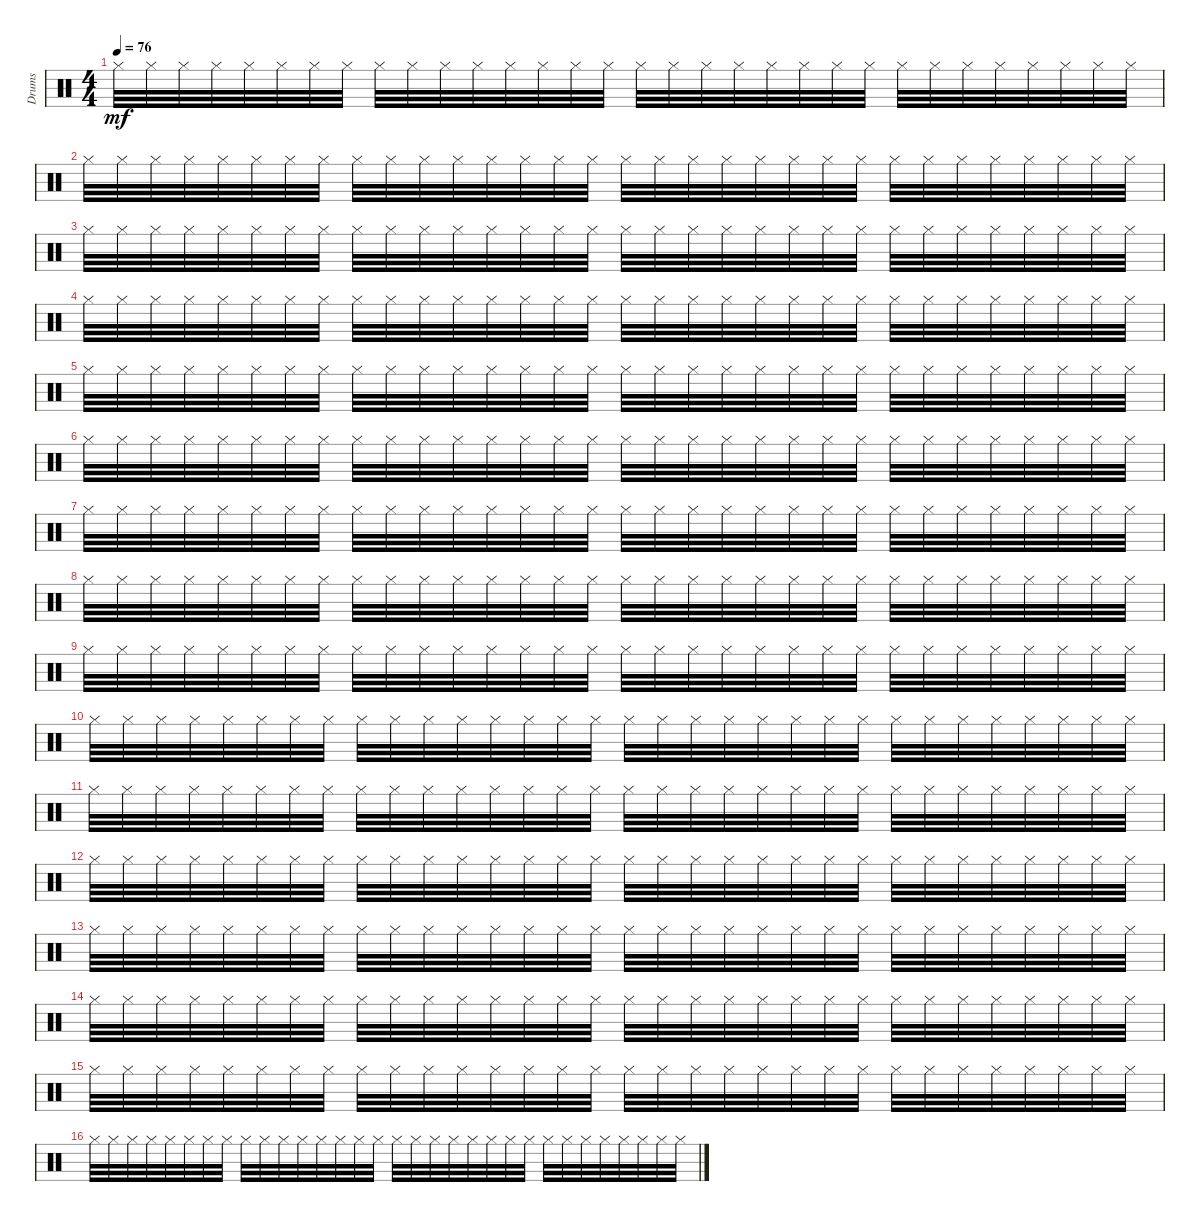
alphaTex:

\track ("Drumkit" "Drums") {instrument percussion}
\staff {score}
\articulation defaults
\ts (4 4)
\tempo 76
\clef neutral
\ks c "Hi-Hat (closed)".32{dy mf} "Hi-Hat (closed)".32 "Hi-Hat (closed)".32 "Hi-Hat (closed)".32 "Hi-Hat (closed)".32 "Hi-Hat (closed)".32 "Hi-Hat (closed)".32 "Hi-Hat (closed)".32 "Hi-Hat (closed)".32 "Hi-Hat (closed)".32 "Hi-Hat (closed)".32 "Hi-Hat (closed)".32 "Hi-Hat (closed)".32 "Hi-Hat (closed)".32 "Hi-Hat (closed)".32 "Hi-Hat (closed)".32 "Hi-Hat (closed)".32 "Hi-Hat (closed)".32 "Hi-Hat (closed)".32 "Hi-Hat (closed)".32 "Hi-Hat (closed)".32 "Hi-Hat (closed)".32 "Hi-Hat (closed)".32 "Hi-Hat (closed)".32 "Hi-Hat (closed)".32 "Hi-Hat (closed)".32 "Hi-Hat (closed)".32 "Hi-Hat (closed)".32 "Hi-Hat (closed)".32 "Hi-Hat (closed)".32 "Hi-Hat (closed)".32 "Hi-Hat (closed)".32
|
"Hi-Hat (closed)".32 "Hi-Hat (closed)".32 "Hi-Hat (closed)".32 "Hi-Hat (closed)".32 "Hi-Hat (closed)".32 "Hi-Hat (closed)".32 "Hi-Hat (closed)".32 "Hi-Hat (closed)".32 "Hi-Hat (closed)".32 "Hi-Hat (closed)".32 "Hi-Hat (closed)".32 "Hi-Hat (closed)".32 "Hi-Hat (closed)".32 "Hi-Hat (closed)".32 "Hi-Hat (closed)".32 "Hi-Hat (closed)".32 "Hi-Hat (closed)".32 "Hi-Hat (closed)".32 "Hi-Hat (closed)".32 "Hi-Hat (closed)".32 "Hi-Hat (closed)".32 "Hi-Hat (closed)".32 "Hi-Hat (closed)".32 "Hi-Hat (closed)".32 "Hi-Hat (closed)".32 "Hi-Hat (closed)".32 "Hi-Hat (closed)".32 "Hi-Hat (closed)".32 "Hi-Hat (closed)".32 "Hi-Hat (closed)".32 "Hi-Hat (closed)".32 "Hi-Hat (closed)".32 |
"Hi-Hat (closed)".32 "Hi-Hat (closed)".32 "Hi-Hat (closed)".32 "Hi-Hat (closed)".32 "Hi-Hat (closed)".32 "Hi-Hat (closed)".32 "Hi-Hat (closed)".32 "Hi-Hat (closed)".32 "Hi-Hat (closed)".32 "Hi-Hat (closed)".32 "Hi-Hat (closed)".32 "Hi-Hat (closed)".32 "Hi-Hat (closed)".32 "Hi-Hat (closed)".32 "Hi-Hat (closed)".32 "Hi-Hat (closed)".32 "Hi-Hat (closed)".32 "Hi-Hat (closed)".32 "Hi-Hat (closed)".32 "Hi-Hat (closed)".32 "Hi-Hat (closed)".32 "Hi-Hat (closed)".32 "Hi-Hat (closed)".32 "Hi-Hat (closed)".32 "Hi-Hat (closed)".32 "Hi-Hat (closed)".32 "Hi-Hat (closed)".32 "Hi-Hat (closed)".32 "Hi-Hat (closed)".32 "Hi-Hat (closed)".32 "Hi-Hat (closed)".32 "Hi-Hat (closed)".32 |
"Hi-Hat (closed)".32 "Hi-Hat (closed)".32 "Hi-Hat (closed)".32 "Hi-Hat (closed)".32 "Hi-Hat (closed)".32 "Hi-Hat (closed)".32 "Hi-Hat (closed)".32 "Hi-Hat (closed)".32 "Hi-Hat (closed)".32 "Hi-Hat (closed)".32 "Hi-Hat (closed)".32 "Hi-Hat (closed)".32 "Hi-Hat (closed)".32 "Hi-Hat (closed)".32 "Hi-Hat (closed)".32 "Hi-Hat (closed)".32 "Hi-Hat (closed)".32 "Hi-Hat (closed)".32 "Hi-Hat (closed)".32 "Hi-Hat (closed)".32 "Hi-Hat (closed)".32 "Hi-Hat (closed)".32 "Hi-Hat (closed)".32 "Hi-Hat (closed)".32 "Hi-Hat (closed)".32 "Hi-Hat (closed)".32 "Hi-Hat (closed)".32 "Hi-Hat (closed)".32 "Hi-Hat (closed)".32 "Hi-Hat (closed)".32 "Hi-Hat (closed)".32 "Hi-Hat (closed)".32 |
"Hi-Hat (closed)".32 "Hi-Hat (closed)".32 "Hi-Hat (closed)".32 "Hi-Hat (closed)".32 "Hi-Hat (closed)".32 "Hi-Hat (closed)".32 "Hi-Hat (closed)".32 "Hi-Hat (closed)".32 "Hi-Hat (closed)".32 "Hi-Hat (closed)".32 "Hi-Hat (closed)".32 "Hi-Hat (closed)".32 "Hi-Hat (closed)".32 "Hi-Hat (closed)".32 "Hi-Hat (closed)".32 "Hi-Hat (closed)".32 "Hi-Hat (closed)".32 "Hi-Hat (closed)".32 "Hi-Hat (closed)".32 "Hi-Hat (closed)".32 "Hi-Hat (closed)".32 "Hi-Hat (closed)".32 "Hi-Hat (closed)".32 "Hi-Hat (closed)".32 "Hi-Hat (closed)".32 "Hi-Hat (closed)".32 "Hi-Hat (closed)".32 "Hi-Hat (closed)".32 "Hi-Hat (closed)".32 "Hi-Hat (closed)".32 "Hi-Hat (closed)".32 "Hi-Hat (closed)".32 |
"Hi-Hat (closed)".32 "Hi-Hat (closed)".32 "Hi-Hat (closed)".32 "Hi-Hat (closed)".32 "Hi-Hat (closed)".32 "Hi-Hat (closed)".32 "Hi-Hat (closed)".32 "Hi-Hat (closed)".32 "Hi-Hat (closed)".32 "Hi-Hat (closed)".32 "Hi-Hat (closed)".32 "Hi-Hat (closed)".32 "Hi-Hat (closed)".32 "Hi-Hat (closed)".32 "Hi-Hat (closed)".32 "Hi-Hat (closed)".32 "Hi-Hat (closed)".32 "Hi-Hat (closed)".32 "Hi-Hat (closed)".32 "Hi-Hat (closed)".32 "Hi-Hat (closed)".32 "Hi-Hat (closed)".32 "Hi-Hat (closed)".32 "Hi-Hat (closed)".32 "Hi-Hat (closed)".32 "Hi-Hat (closed)".32 "Hi-Hat (closed)".32 "Hi-Hat (closed)".32 "Hi-Hat (closed)".32 "Hi-Hat (closed)".32 "Hi-Hat (closed)".32 "Hi-Hat (closed)".32 |
"Hi-Hat (closed)".32 "Hi-Hat (closed)".32 "Hi-Hat (closed)".32 "Hi-Hat (closed)".32 "Hi-Hat (closed)".32 "Hi-Hat (closed)".32 "Hi-Hat (closed)".32 "Hi-Hat (closed)".32 "Hi-Hat (closed)".32 "Hi-Hat (closed)".32 "Hi-Hat (closed)".32 "Hi-Hat (closed)".32 "Hi-Hat (closed)".32 "Hi-Hat (closed)".32 "Hi-Hat (closed)".32 "Hi-Hat (closed)".32 "Hi-Hat (closed)".32 "Hi-Hat (closed)".32 "Hi-Hat (closed)".32 "Hi-Hat (closed)".32 "Hi-Hat (closed)".32 "Hi-Hat (closed)".32 "Hi-Hat (closed)".32 "Hi-Hat (closed)".32 "Hi-Hat (closed)".32 "Hi-Hat (closed)".32 "Hi-Hat (closed)".32 "Hi-Hat (closed)".32 "Hi-Hat (closed)".32 "Hi-Hat (closed)".32 "Hi-Hat (closed)".32 "Hi-Hat (closed)".32 |
"Hi-Hat (closed)".32 "Hi-Hat (closed)".32 "Hi-Hat (closed)".32 "Hi-Hat (closed)".32 "Hi-Hat (closed)".32 "Hi-Hat (closed)".32 "Hi-Hat (closed)".32 "Hi-Hat (closed)".32 "Hi-Hat (closed)".32 "Hi-Hat (closed)".32 "Hi-Hat (closed)".32 "Hi-Hat (closed)".32 "Hi-Hat (closed)".32 "Hi-Hat (closed)".32 "Hi-Hat (closed)".32 "Hi-Hat (closed)".32 "Hi-Hat (closed)".32 "Hi-Hat (closed)".32 "Hi-Hat (closed)".32 "Hi-Hat (closed)".32 "Hi-Hat (closed)".32 "Hi-Hat (closed)".32 "Hi-Hat (closed)".32 "Hi-Hat (closed)".32 "Hi-Hat (closed)".32 "Hi-Hat (closed)".32 "Hi-Hat (closed)".32 "Hi-Hat (closed)".32 "Hi-Hat (closed)".32 "Hi-Hat (closed)".32 "Hi-Hat (closed)".32 "Hi-Hat (closed)".32 |
"Hi-Hat (closed)".32 "Hi-Hat (closed)".32 "Hi-Hat (closed)".32 "Hi-Hat (closed)".32 "Hi-Hat (closed)".32 "Hi-Hat (closed)".32 "Hi-Hat (closed)".32 "Hi-Hat (closed)".32 "Hi-Hat (closed)".32 "Hi-Hat (closed)".32 "Hi-Hat (closed)".32 "Hi-Hat (closed)".32 "Hi-Hat (closed)".32 "Hi-Hat (closed)".32 "Hi-Hat (closed)".32 "Hi-Hat (closed)".32 "Hi-Hat (closed)".32 "Hi-Hat (closed)".32 "Hi-Hat (closed)".32 "Hi-Hat (closed)".32 "Hi-Hat (closed)".32 "Hi-Hat (closed)".32 "Hi-Hat (closed)".32 "Hi-Hat (closed)".32 "Hi-Hat (closed)".32 "Hi-Hat (closed)".32 "Hi-Hat (closed)".32 "Hi-Hat (closed)".32 "Hi-Hat (closed)".32 "Hi-Hat (closed)".32 "Hi-Hat (closed)".32 "Hi-Hat (closed)".32 |
"Hi-Hat (closed)".32 "Hi-Hat (closed)".32 "Hi-Hat (closed)".32 "Hi-Hat (closed)".32 "Hi-Hat (closed)".32 "Hi-Hat (closed)".32 "Hi-Hat (closed)".32 "Hi-Hat (closed)".32 "Hi-Hat (closed)".32 "Hi-Hat (closed)".32 "Hi-Hat (closed)".32 "Hi-Hat (closed)".32 "Hi-Hat (closed)".32 "Hi-Hat (closed)".32 "Hi-Hat (closed)".32 "Hi-Hat (closed)".32 "Hi-Hat (closed)".32 "Hi-Hat (closed)".32 "Hi-Hat (closed)".32 "Hi-Hat (closed)".32 "Hi-Hat (closed)".32 "Hi-Hat (closed)".32 "Hi-Hat (closed)".32 "Hi-Hat (closed)".32 "Hi-Hat (closed)".32 "Hi-Hat (closed)".32 "Hi-Hat (closed)".32 "Hi-Hat (closed)".32 "Hi-Hat (closed)".32 "Hi-Hat (closed)".32 "Hi-Hat (closed)".32 "Hi-Hat (closed)".32 |
"Hi-Hat (closed)".32 "Hi-Hat (closed)".32 "Hi-Hat (closed)".32 "Hi-Hat (closed)".32 "Hi-Hat (closed)".32 "Hi-Hat (closed)".32 "Hi-Hat (closed)".32 "Hi-Hat (closed)".32 "Hi-Hat (closed)".32 "Hi-Hat (closed)".32 "Hi-Hat (closed)".32 "Hi-Hat (closed)".32 "Hi-Hat (closed)".32 "Hi-Hat (closed)".32 "Hi-Hat (closed)".32 "Hi-Hat (closed)".32 "Hi-Hat (closed)".32 "Hi-Hat (closed)".32 "Hi-Hat (closed)".32 "Hi-Hat (closed)".32 "Hi-Hat (closed)".32 "Hi-Hat (closed)".32 "Hi-Hat (closed)".32 "Hi-Hat (closed)".32 "Hi-Hat (closed)".32 "Hi-Hat (closed)".32 "Hi-Hat (closed)".32 "Hi-Hat (closed)".32 "Hi-Hat (closed)".32 "Hi-Hat (closed)".32 "Hi-Hat (closed)".32 "Hi-Hat (closed)".32 |
"Hi-Hat (closed)".32 "Hi-Hat (closed)".32 "Hi-Hat (closed)".32 "Hi-Hat (closed)".32 "Hi-Hat (closed)".32 "Hi-Hat (closed)".32 "Hi-Hat (closed)".32 "Hi-Hat (closed)".32 "Hi-Hat (closed)".32 "Hi-Hat (closed)".32 "Hi-Hat (closed)".32 "Hi-Hat (closed)".32 "Hi-Hat (closed)".32 "Hi-Hat (closed)".32 "Hi-Hat (closed)".32 "Hi-Hat (closed)".32 "Hi-Hat (closed)".32 "Hi-Hat (closed)".32 "Hi-Hat (closed)".32 "Hi-Hat (closed)".32 "Hi-Hat (closed)".32 "Hi-Hat (closed)".32 "Hi-Hat (closed)".32 "Hi-Hat (closed)".32 "Hi-Hat (closed)".32 "Hi-Hat (closed)".32 "Hi-Hat (closed)".32 "Hi-Hat (closed)".32 "Hi-Hat (closed)".32 "Hi-Hat (closed)".32 "Hi-Hat (closed)".32 "Hi-Hat (closed)".32 |
"Hi-Hat (closed)".32 "Hi-Hat (closed)".32 "Hi-Hat (closed)".32 "Hi-Hat (closed)".32 "Hi-Hat (closed)".32 "Hi-Hat (closed)".32 "Hi-Hat (closed)".32 "Hi-Hat (closed)".32 "Hi-Hat (closed)".32 "Hi-Hat (closed)".32 "Hi-Hat (closed)".32 "Hi-Hat (closed)".32 "Hi-Hat (closed)".32 "Hi-Hat (closed)".32 "Hi-Hat (closed)".32 "Hi-Hat (closed)".32 "Hi-Hat (closed)".32 "Hi-Hat (closed)".32 "Hi-Hat (closed)".32 "Hi-Hat (closed)".32 "Hi-Hat (closed)".32 "Hi-Hat (closed)".32 "Hi-Hat (closed)".32 "Hi-Hat (closed)".32 "Hi-Hat (closed)".32 "Hi-Hat (closed)".32 "Hi-Hat (closed)".32 "Hi-Hat (closed)".32 "Hi-Hat (closed)".32 "Hi-Hat (closed)".32 "Hi-Hat (closed)".32 "Hi-Hat (closed)".32 |
"Hi-Hat (closed)".32 "Hi-Hat (closed)".32 "Hi-Hat (closed)".32 "Hi-Hat (closed)".32 "Hi-Hat (closed)".32 "Hi-Hat (closed)".32 "Hi-Hat (closed)".32 "Hi-Hat (closed)".32 "Hi-Hat (closed)".32 "Hi-Hat (closed)".32 "Hi-Hat (closed)".32 "Hi-Hat (closed)".32 "Hi-Hat (closed)".32 "Hi-Hat (closed)".32 "Hi-Hat (closed)".32 "Hi-Hat (closed)".32 "Hi-Hat (closed)".32 "Hi-Hat (closed)".32 "Hi-Hat (closed)".32 "Hi-Hat (closed)".32 "Hi-Hat (closed)".32 "Hi-Hat (closed)".32 "Hi-Hat (closed)".32 "Hi-Hat (closed)".32 "Hi-Hat (closed)".32 "Hi-Hat (closed)".32 "Hi-Hat (closed)".32 "Hi-Hat (closed)".32 "Hi-Hat (closed)".32 "Hi-Hat (closed)".32 "Hi-Hat (closed)".32 "Hi-Hat (closed)".32 |
"Hi-Hat (closed)".32 "Hi-Hat (closed)".32 "Hi-Hat (closed)".32 "Hi-Hat (closed)".32 "Hi-Hat (closed)".32 "Hi-Hat (closed)".32 "Hi-Hat (closed)".32 "Hi-Hat (closed)".32 "Hi-Hat (closed)".32 "Hi-Hat (closed)".32 "Hi-Hat (closed)".32 "Hi-Hat (closed)".32 "Hi-Hat (closed)".32 "Hi-Hat (closed)".32 "Hi-Hat (closed)".32 "Hi-Hat (closed)".32 "Hi-Hat (closed)".32 "Hi-Hat (closed)".32 "Hi-Hat (closed)".32 "Hi-Hat (closed)".32 "Hi-Hat (closed)".32 "Hi-Hat (closed)".32 "Hi-Hat (closed)".32 "Hi-Hat (closed)".32 "Hi-Hat (closed)".32 "Hi-Hat (closed)".32 "Hi-Hat (closed)".32 "Hi-Hat (closed)".32 "Hi-Hat (closed)".32 "Hi-Hat (closed)".32 "Hi-Hat (closed)".32 "Hi-Hat (closed)".32 |
"Hi-Hat (closed)".32 "Hi-Hat (closed)".32 "Hi-Hat (closed)".32 "Hi-Hat (closed)".32 "Hi-Hat (closed)".32 "Hi-Hat (closed)".32 "Hi-Hat (closed)".32 "Hi-Hat (closed)".32 "Hi-Hat (closed)".32 "Hi-Hat (closed)".32 "Hi-Hat (closed)".32 "Hi-Hat (closed)".32 "Hi-Hat (closed)".32 "Hi-Hat (closed)".32 "Hi-Hat (closed)".32 "Hi-Hat (closed)".32 "Hi-Hat (closed)".32 "Hi-Hat (closed)".32 "Hi-Hat (closed)".32 "Hi-Hat (closed)".32 "Hi-Hat (closed)".32 "Hi-Hat (closed)".32 "Hi-Hat (closed)".32 "Hi-Hat (closed)".32 "Hi-Hat (closed)".32 "Hi-Hat (closed)".32 "Hi-Hat (closed)".32 "Hi-Hat (closed)".32 "Hi-Hat (closed)".32 "Hi-Hat (closed)".32 "Hi-Hat (closed)".32 "Hi-Hat (closed)".32
